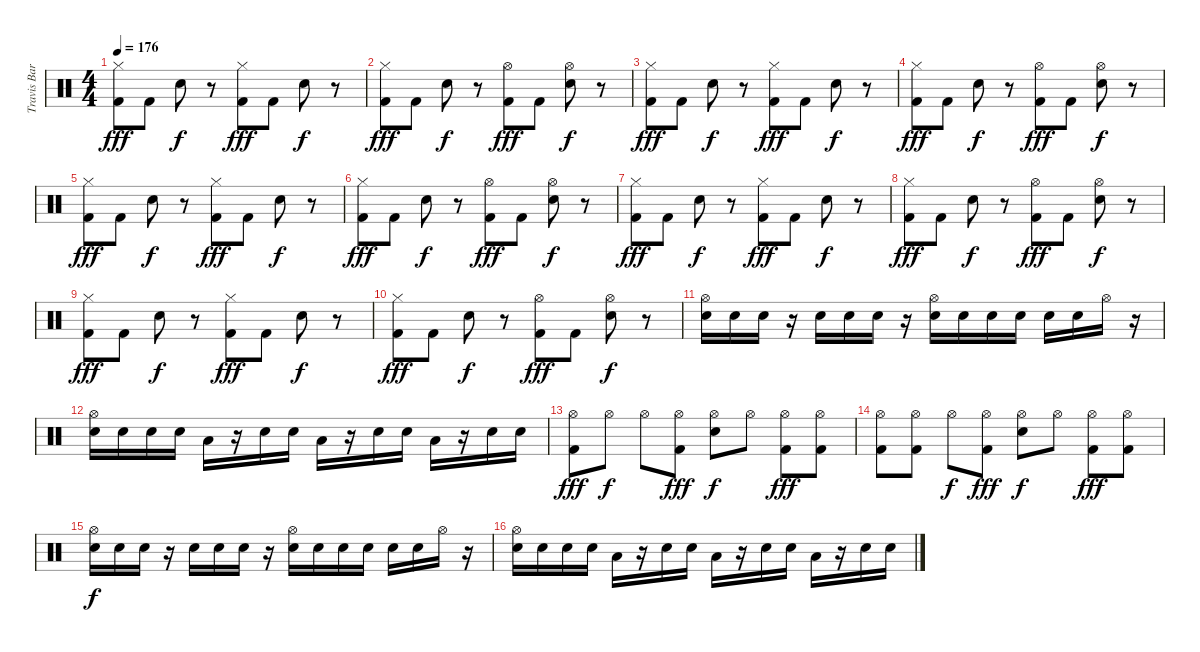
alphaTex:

\track ("Travis Barker - Drums" "Travis Bar") {instrument percussion}
\staff {score}
\articulation defaults
\ts (4 4)
\tempo 176
\clef neutral
\ks c
("Kick (hit) 2" "Hi-Hat (closed)").8{dy fff} "Kick (hit) 2".8 "Snare (hit) 2".8{dy f} r.8 ("Kick (hit) 2" "Hi-Hat (closed)").8{dy fff} "Kick (hit) 2".8 "Snare (hit) 2".8{dy f} r.8 |
("Kick (hit) 2" "Hi-Hat (closed)").8{dy fff} "Kick (hit) 2".8 "Snare (hit) 2".8{dy f} r.8 ("Kick (hit) 2" "Hi-Hat (open)").8{dy fff} "Kick (hit) 2".8 ("Snare (hit) 2" "Hi-Hat (open)").8{dy f} r.8 |
("Kick (hit) 2" "Hi-Hat (closed)").8{dy fff} "Kick (hit) 2".8 "Snare (hit) 2".8{dy f} r.8 ("Kick (hit) 2" "Hi-Hat (closed)").8{dy fff} "Kick (hit) 2".8 "Snare (hit) 2".8{dy f} r.8 |
("Kick (hit) 2" "Hi-Hat (closed)").8{dy fff} "Kick (hit) 2".8 "Snare (hit) 2".8{dy f} r.8 ("Kick (hit) 2" "Hi-Hat (open)").8{dy fff} "Kick (hit) 2".8 ("Snare (hit) 2" "Hi-Hat (open)").8{dy f} r.8 |
("Kick (hit) 2" "Hi-Hat (closed)").8{dy fff} "Kick (hit) 2".8 "Snare (hit) 2".8{dy f} r.8 ("Kick (hit) 2" "Hi-Hat (closed)").8{dy fff} "Kick (hit) 2".8 "Snare (hit) 2".8{dy f} r.8 |
("Kick (hit) 2" "Hi-Hat (closed)").8{dy fff} "Kick (hit) 2".8 "Snare (hit) 2".8{dy f} r.8 ("Kick (hit) 2" "Hi-Hat (open)").8{dy fff} "Kick (hit) 2".8 ("Snare (hit) 2" "Hi-Hat (open)").8{dy f} r.8 |
("Kick (hit) 2" "Hi-Hat (closed)").8{dy fff} "Kick (hit) 2".8 "Snare (hit) 2".8{dy f} r.8 ("Kick (hit) 2" "Hi-Hat (closed)").8{dy fff} "Kick (hit) 2".8 "Snare (hit) 2".8{dy f} r.8 |
("Kick (hit) 2" "Hi-Hat (closed)").8{dy fff} "Kick (hit) 2".8 "Snare (hit) 2".8{dy f} r.8 ("Kick (hit) 2" "Hi-Hat (open)").8{dy fff} "Kick (hit) 2".8 ("Snare (hit) 2" "Hi-Hat (open)").8{dy f} r.8 |
("Kick (hit) 2" "Hi-Hat (closed)").8{dy fff} "Kick (hit) 2".8 "Snare (hit) 2".8{dy f} r.8 ("Kick (hit) 2" "Hi-Hat (closed)").8{dy fff} "Kick (hit) 2".8 "Snare (hit) 2".8{dy f} r.8 |
("Kick (hit) 2" "Hi-Hat (closed)").8{dy fff} "Kick (hit) 2".8 "Snare (hit) 2".8{dy f} r.8 ("Kick (hit) 2" "Hi-Hat (open)").8{dy fff} "Kick (hit) 2".8 ("Snare (hit) 2" "Hi-Hat (open)").8{dy f} r.8 |
("Snare (hit) 2" "Hi-Hat (open)").16 "Snare (hit) 2".16 "Snare (hit) 2".16 r.16 "Snare (hit) 2".16 "Snare (hit) 2".16 "Snare (hit) 2".16 r.16 ("Snare (hit) 2" "Hi-Hat (open)").16 "Snare (hit) 2".16 "Snare (hit) 2".16 "Snare (hit) 2".16 "Snare (hit) 2".16 "Snare (hit) 2".16 "Hi-Hat (open)".16 r.16 |
("Snare (hit) 2" "Hi-Hat (open)").16 "Snare (hit) 2".16 "Snare (hit) 2".16 "Snare (hit) 2".16 "Low Tom (hit)".16 r.16 "Snare (hit) 2".16 "Snare (hit) 2".16 "Low Tom (hit)".16 r.16 "Snare (hit) 2".16 "Snare (hit) 2".16 "Low Tom (hit)".16 r.16 "Snare (hit) 2".16 "Snare (hit) 2".16 |
("Kick (hit) 2" "Hi-Hat (open)").8{dy fff} "Hi-Hat (open)".8{dy f} "Hi-Hat (open)".8 ("Kick (hit) 2" "Hi-Hat (open)").8{dy fff} ("Snare (hit) 2" "Hi-Hat (open)").8{dy f} "Hi-Hat (open)".8 ("Kick (hit) 2" "Hi-Hat (open)").8{dy fff} ("Kick (hit) 2" "Hi-Hat (open)").8 |
("Kick (hit) 2" "Hi-Hat (open)").8 ("Kick (hit) 2" "Hi-Hat (open)").8 "Hi-Hat (open)".8{dy f} ("Kick (hit) 2" "Hi-Hat (open)").8{dy fff} ("Snare (hit) 2" "Hi-Hat (open)").8{dy f} "Hi-Hat (open)".8 ("Kick (hit) 2" "Hi-Hat (open)").8{dy fff} ("Kick (hit) 2" "Hi-Hat (open)").8 |
("Snare (hit) 2" "Hi-Hat (open)").16{dy f} "Snare (hit) 2".16 "Snare (hit) 2".16 r.16 "Snare (hit) 2".16 "Snare (hit) 2".16 "Snare (hit) 2".16 r.16 ("Snare (hit) 2" "Hi-Hat (open)").16 "Snare (hit) 2".16 "Snare (hit) 2".16 "Snare (hit) 2".16 "Snare (hit) 2".16 "Snare (hit) 2".16 "Hi-Hat (open)".16 r.16 |
("Snare (hit) 2" "Hi-Hat (open)").16 "Snare (hit) 2".16 "Snare (hit) 2".16 "Snare (hit) 2".16 "Low Tom (hit)".16 r.16 "Snare (hit) 2".16 "Snare (hit) 2".16 "Low Tom (hit)".16 r.16 "Snare (hit) 2".16 "Snare (hit) 2".16 "Low Tom (hit)".16 r.16 "Snare (hit) 2".16 "Snare (hit) 2".16
